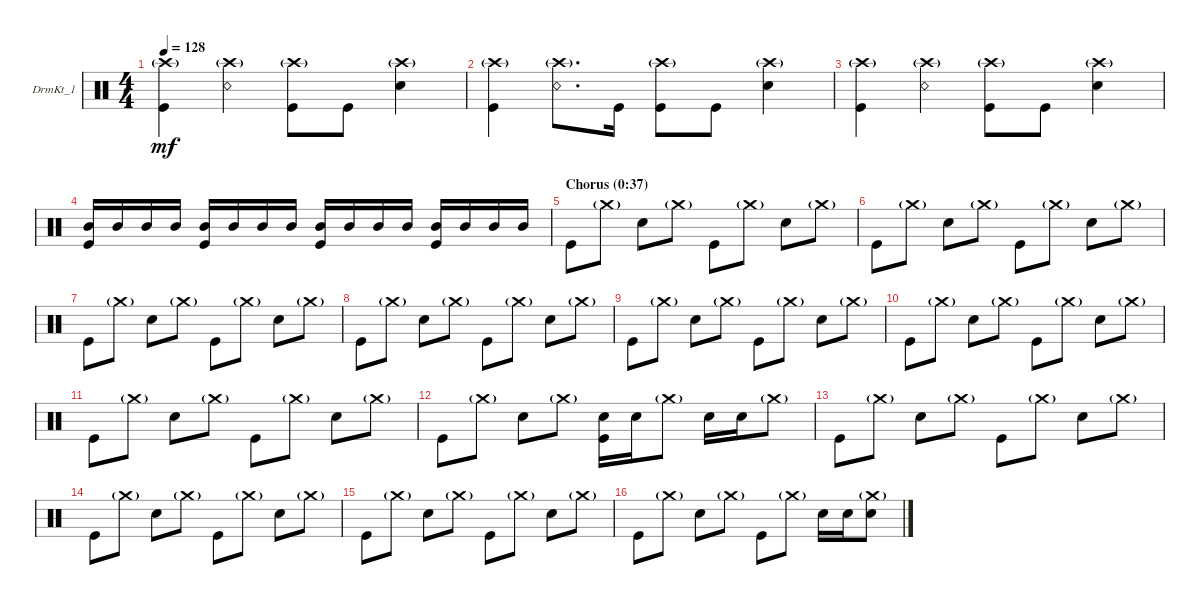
\defaultSystemsLayout 4
\bracketExtendMode groupsimilarinstruments
\firstSystemTrackNameOrientation horizontal
\otherSystemsTrackNameOrientation horizontal
\track ("DrmKt_1" "DrmKt_1") {instrument percussion}
\staff {score}
\articulation defaults
\ts (4 4)
\tempo 128
\clef neutral
\scale
0.25
\ks c
("Kick (hit)" "Crash high (hit)"{g}).4{dy mf} ("Snare (rim shot)" "Crash high (hit)"{g}).4 ("Kick (hit)" "Crash high (hit)"{g}).8 "Kick (hit)".8 ("Snare (hit) 2" "Crash high (hit)"{g}).4 |
("Kick (hit)" "Crash high (hit)"{g}).4 ("Snare (rim shot)" "Crash high (hit)"{g}).8{d} "Kick (hit)".16 ("Kick (hit)" "Crash high (hit)"{g}).8 "Kick (hit)".8 ("Snare (hit) 2" "Crash high (hit)"{g}).4 |
\scale
0.25 ("Kick (hit)" "Crash high (hit)"{g}).4 ("Snare (rim shot)" "Crash high (hit)"{g}).4 ("Kick (hit)" "Crash high (hit)"{g}).8 "Kick (hit)".8 ("Snare (hit) 2" "Crash high (hit)"{g}).4 |
\scale
0.25 ("Mid Tom (hit)" "Kick (hit)").16 "Mid Tom (hit)".16 "Mid Tom (hit)".16 "Mid Tom (hit)".16 ("Mid Tom (hit)" "Kick (hit)").16 "Mid Tom (hit)".16 "Mid Tom (hit)".16 "Mid Tom (hit)".16 ("Mid Tom (hit)" "Kick (hit)").16 "Mid Tom (hit)".16 "Mid Tom (hit)".16 "Mid Tom (hit)".16 ("Mid Tom (hit)" "Kick (hit)").16 "Mid Tom (hit)".16 "Mid Tom (hit)".16 "Mid Tom (hit)".16 |
\section ("" "Chorus (0:37)")
\scale
0.25 "Kick (hit)".8 "Crash medium (hit)"{g}.8 "Snare (hit) 2".8 "Crash medium (hit)"{g}.8 "Kick (hit)".8 "Crash medium (hit)"{g}.8 "Snare (hit) 2".8 "Crash medium (hit)"{g}.8 |
"Kick (hit)".8 "Crash medium (hit)"{g}.8 "Snare (hit) 2".8 "Crash medium (hit)"{g}.8 "Kick (hit)".8 "Crash medium (hit)"{g}.8 "Snare (hit) 2".8 "Crash medium (hit)"{g}.8 |
"Kick (hit)".8 "Crash medium (hit)"{g}.8 "Snare (hit) 2".8 "Crash medium (hit)"{g}.8 "Kick (hit)".8 "Crash medium (hit)"{g}.8 "Snare (hit) 2".8 "Crash medium (hit)"{g}.8 |
"Kick (hit)".8 "Crash medium (hit)"{g}.8 "Snare (hit) 2".8 "Crash medium (hit)"{g}.8 "Kick (hit)".8 "Crash medium (hit)"{g}.8 "Snare (hit) 2".8 "Crash medium (hit)"{g}.8 |
"Kick (hit)".8 "Crash medium (hit)"{g}.8 "Snare (hit) 2".8 "Crash medium (hit)"{g}.8 "Kick (hit)".8 "Crash medium (hit)"{g}.8 "Snare (hit) 2".8 "Crash medium (hit)"{g}.8 |
"Kick (hit)".8 "Crash medium (hit)"{g}.8 "Snare (hit) 2".8 "Crash medium (hit)"{g}.8 "Kick (hit)".8 "Crash medium (hit)"{g}.8 "Snare (hit) 2".8 "Crash medium (hit)"{g}.8 |
"Kick (hit)".8 "Crash medium (hit)"{g}.8 "Snare (hit) 2".8 "Crash medium (hit)"{g}.8 "Kick (hit)".8 "Crash medium (hit)"{g}.8 "Snare (hit) 2".8 "Crash medium (hit)"{g}.8 |
"Kick (hit)".8 "Crash medium (hit)"{g}.8 "Snare (hit) 2".8 "Crash medium (hit)"{g}.8 ("Kick (hit)" "Snare (hit) 2").16 "Snare (hit) 2".16 "Crash medium (hit)"{g}.8 "Snare (hit) 2".16 "Snare (hit) 2".16 "Crash medium (hit)"{g}.8 |
"Kick (hit)".8 "Crash medium (hit)"{g}.8 "Snare (hit) 2".8 "Crash medium (hit)"{g}.8 "Kick (hit)".8 "Crash medium (hit)"{g}.8 "Snare (hit) 2".8 "Crash medium (hit)"{g}.8 |
"Kick (hit)".8 "Crash medium (hit)"{g}.8 "Snare (hit) 2".8 "Crash medium (hit)"{g}.8 "Kick (hit)".8 "Crash medium (hit)"{g}.8 "Snare (hit) 2".8 "Crash medium (hit)"{g}.8 |
"Kick (hit)".8 "Crash medium (hit)"{g}.8 "Snare (hit) 2".8 "Crash medium (hit)"{g}.8 "Kick (hit)".8 "Crash medium (hit)"{g}.8 "Snare (hit) 2".8 "Crash medium (hit)"{g}.8 |
"Kick (hit)".8 "Crash medium (hit)"{g}.8 "Snare (hit) 2".8 "Crash medium (hit)"{g}.8 "Kick (hit)".8 "Crash medium (hit)"{g}.8 "Snare (hit) 2".16 "Snare (hit) 2".16 ("Snare (hit) 2" "Crash medium (hit)"{g}).8
